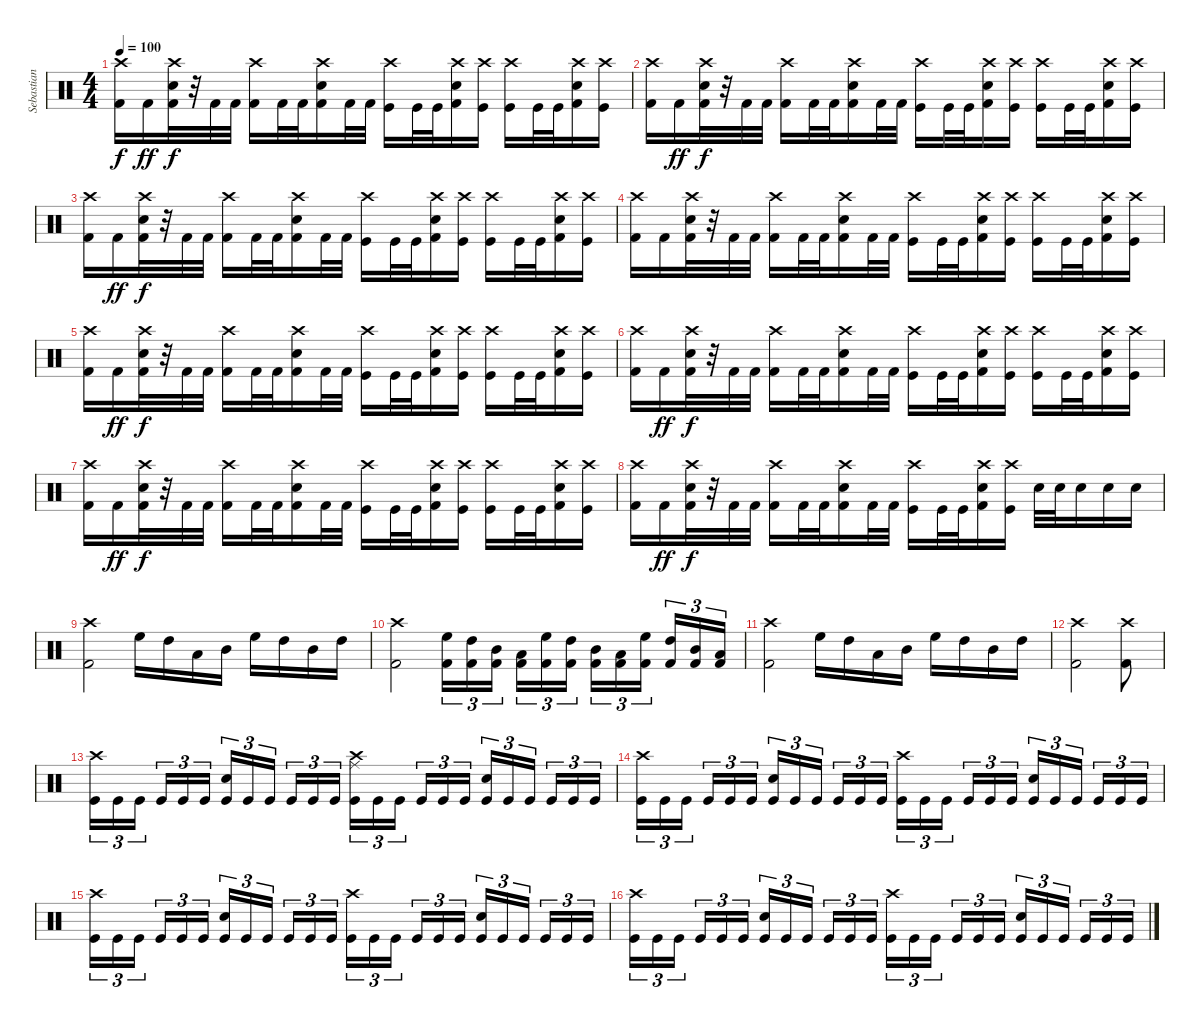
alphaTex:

\track ("Sebastian Heldt" "Sebastian ") {instrument percussion bank 177}
\staff {score}
\articulation defaults
\ts (4 4)
\tempo 100
\clef neutral
\ks c
("Kick (hit) 2" "Crash high (hit)").16{dy f} "Kick (hit) 2".16{dy ff} ("Crash high (hit)" "Kick (hit) 2" "Snare (hit) 2").32{dy f} r.32 "Kick (hit) 2".32 "Kick (hit) 2".32 ("Kick (hit) 2" "Crash high (hit)").16 "Kick (hit) 2".32 "Kick (hit) 2".32 ("Crash high (hit)" "Kick (hit) 2" "Snare (hit) 2").16 "Kick (hit) 2".32 "Kick (hit) 2".32 ("Kick (hit)" "Crash high (hit)").16 "Kick (hit)".32 "Kick (hit)".32 ("Crash high (hit)" "Kick (hit) 2" "Snare (hit) 2").16 ("Kick (hit)" "Crash high (hit)").16 ("Kick (hit)" "Crash high (hit)").16 "Kick (hit)".32 "Kick (hit)".32 ("Crash high (hit)" "Kick (hit) 2" "Snare (hit) 2").16 ("Kick (hit)" "Crash high (hit)").16 |
("Kick (hit) 2" "Crash high (hit)").16 "Kick (hit) 2".16{dy ff} ("Crash high (hit)" "Kick (hit) 2" "Snare (hit) 2").32{dy f} r.32 "Kick (hit) 2".32 "Kick (hit) 2".32 ("Kick (hit) 2" "Crash high (hit)").16 "Kick (hit) 2".32 "Kick (hit) 2".32 ("Crash high (hit)" "Kick (hit) 2" "Snare (hit) 2").16 "Kick (hit) 2".32 "Kick (hit) 2".32 ("Kick (hit)" "Crash high (hit)").16 "Kick (hit)".32 "Kick (hit)".32 ("Crash high (hit)" "Kick (hit) 2" "Snare (hit) 2").16 ("Kick (hit)" "Crash high (hit)").16 ("Kick (hit)" "Crash high (hit)").16 "Kick (hit)".32 "Kick (hit)".32 ("Crash high (hit)" "Kick (hit) 2" "Snare (hit) 2").16 ("Kick (hit)" "Crash high (hit)").16 |
("Kick (hit) 2" "Crash high (hit)").16 "Kick (hit) 2".16{dy ff} ("Crash high (hit)" "Kick (hit) 2" "Snare (hit) 2").32{dy f} r.32 "Kick (hit) 2".32 "Kick (hit) 2".32 ("Kick (hit) 2" "Crash high (hit)").16 "Kick (hit) 2".32 "Kick (hit) 2".32 ("Crash high (hit)" "Kick (hit) 2" "Snare (hit) 2").16 "Kick (hit) 2".32 "Kick (hit) 2".32 ("Kick (hit)" "Crash high (hit)").16 "Kick (hit)".32 "Kick (hit)".32 ("Crash high (hit)" "Kick (hit) 2" "Snare (hit) 2").16 ("Kick (hit)" "Crash high (hit)").16 ("Kick (hit)" "Crash high (hit)").16 "Kick (hit)".32 "Kick (hit)".32 ("Crash high (hit)" "Kick (hit) 2" "Snare (hit) 2").16 ("Kick (hit)" "Crash high (hit)").16 |
("Kick (hit) 2" "Crash high (hit)").16 "Kick (hit) 2".16 ("Crash high (hit)" "Kick (hit) 2" "Snare (hit) 2").32 r.32 "Kick (hit) 2".32 "Kick (hit) 2".32 ("Kick (hit) 2" "Crash high (hit)").16 "Kick (hit) 2".32 "Kick (hit) 2".32 ("Crash high (hit)" "Kick (hit) 2" "Snare (hit) 2").16 "Kick (hit) 2".32 "Kick (hit) 2".32 ("Kick (hit)" "Crash high (hit)").16 "Kick (hit)".32 "Kick (hit)".32 ("Crash high (hit)" "Kick (hit) 2" "Snare (hit) 2").16 ("Kick (hit)" "Crash high (hit)").16 ("Kick (hit)" "Crash high (hit)").16 "Kick (hit)".32 "Kick (hit)".32 ("Crash high (hit)" "Kick (hit) 2" "Snare (hit) 2").16 ("Kick (hit)" "Crash high (hit)").16 |
("Kick (hit) 2" "Crash high (hit)").16 "Kick (hit) 2".16{dy ff} ("Crash high (hit)" "Kick (hit) 2" "Snare (hit) 2").32{dy f} r.32 "Kick (hit) 2".32 "Kick (hit) 2".32 ("Kick (hit) 2" "Crash high (hit)").16 "Kick (hit) 2".32 "Kick (hit) 2".32 ("Crash high (hit)" "Kick (hit) 2" "Snare (hit) 2").16 "Kick (hit) 2".32 "Kick (hit) 2".32 ("Kick (hit)" "Crash high (hit)").16 "Kick (hit)".32 "Kick (hit)".32 ("Crash high (hit)" "Kick (hit) 2" "Snare (hit) 2").16 ("Kick (hit)" "Crash high (hit)").16 ("Kick (hit)" "Crash high (hit)").16 "Kick (hit)".32 "Kick (hit)".32 ("Crash high (hit)" "Kick (hit) 2" "Snare (hit) 2").16 ("Kick (hit)" "Crash high (hit)").16 |
("Kick (hit) 2" "Crash high (hit)").16 "Kick (hit) 2".16{dy ff} ("Crash high (hit)" "Kick (hit) 2" "Snare (hit) 2").32{dy f} r.32 "Kick (hit) 2".32 "Kick (hit) 2".32 ("Kick (hit) 2" "Crash high (hit)").16 "Kick (hit) 2".32 "Kick (hit) 2".32 ("Crash high (hit)" "Kick (hit) 2" "Snare (hit) 2").16 "Kick (hit) 2".32 "Kick (hit) 2".32 ("Kick (hit)" "Crash high (hit)").16 "Kick (hit)".32 "Kick (hit)".32 ("Crash high (hit)" "Kick (hit) 2" "Snare (hit) 2").16 ("Kick (hit)" "Crash high (hit)").16 ("Kick (hit)" "Crash high (hit)").16 "Kick (hit)".32 "Kick (hit)".32 ("Crash high (hit)" "Kick (hit) 2" "Snare (hit) 2").16 ("Kick (hit)" "Crash high (hit)").16 |
("Kick (hit) 2" "Crash high (hit)").16 "Kick (hit) 2".16{dy ff} ("Crash high (hit)" "Kick (hit) 2" "Snare (hit) 2").32{dy f} r.32 "Kick (hit) 2".32 "Kick (hit) 2".32 ("Kick (hit) 2" "Crash high (hit)").16 "Kick (hit) 2".32 "Kick (hit) 2".32 ("Crash high (hit)" "Kick (hit) 2" "Snare (hit) 2").16 "Kick (hit) 2".32 "Kick (hit) 2".32 ("Kick (hit)" "Crash high (hit)").16 "Kick (hit)".32 "Kick (hit)".32 ("Crash high (hit)" "Kick (hit) 2" "Snare (hit) 2").16 ("Kick (hit)" "Crash high (hit)").16 ("Kick (hit)" "Crash high (hit)").16 "Kick (hit)".32 "Kick (hit)".32 ("Crash high (hit)" "Kick (hit) 2" "Snare (hit) 2").16 ("Kick (hit)" "Crash high (hit)").16 |
("Kick (hit) 2" "Crash high (hit)").16 "Kick (hit) 2".16{dy ff} ("Crash high (hit)" "Kick (hit) 2" "Snare (hit) 2").32{dy f} r.32 "Kick (hit) 2".32 "Kick (hit) 2".32 ("Kick (hit) 2" "Crash high (hit)").16 "Kick (hit) 2".32 "Kick (hit) 2".32 ("Crash high (hit)" "Kick (hit) 2" "Snare (hit) 2").16 "Kick (hit) 2".32 "Kick (hit) 2".32 ("Kick (hit)" "Crash high (hit)").16 "Kick (hit)".32 "Kick (hit)".32 ("Crash high (hit)" "Kick (hit) 2" "Snare (hit) 2").16 ("Kick (hit)" "Crash high (hit)").16 "Snare (hit) 2".32 "Snare (hit) 2".32 "Snare (hit) 2".16 "Snare (hit) 2".16 "Snare (hit) 2".16 |
("Kick (hit) 2" "Crash high (hit)").2 "High Floor Tom (hit)".16 "High Tom (hit)".16 "Low Tom (hit)".16 "Mid Tom (hit)".16 "High Floor Tom (hit)".16 "High Tom (hit)".16 "Mid Tom (hit)".16 "High Tom (hit)".16 |
("Kick (hit) 2" "Crash high (hit)").2 ("High Floor Tom (hit)" "Kick (hit) 2").16{tu (3 2)} ("High Tom (hit)" "Kick (hit) 2").16{tu (3 2)} ("Mid Tom (hit)" "Kick (hit) 2").16{tu (3 2) beam splitsecondary} ("Low Tom (hit)" "Kick (hit) 2").16{tu (3 2)} ("High Floor Tom (hit)" "Kick (hit) 2").16{tu (3 2)} ("High Tom (hit)" "Kick (hit) 2").16{tu (3 2)} ("Mid Tom (hit)" "Kick (hit) 2").16{tu (3 2)} ("Low Tom (hit)" "Kick (hit) 2").16{tu (3 2)} ("High Floor Tom (hit)" "Kick (hit) 2").16{tu (3 2) beam splitsecondary} ("High Tom (hit)" "Kick (hit) 2").16{tu (3 2)} ("Mid Tom (hit)" "Kick (hit) 2").16{tu (3 2)} ("Low Tom (hit)" "Kick (hit) 2").16{tu (3 2)} |
("Kick (hit) 2" "Crash high (hit)").2 "High Floor Tom (hit)".16 "High Tom (hit)".16 "Low Tom (hit)".16 "Mid Tom (hit)".16 "High Floor Tom (hit)".16 "High Tom (hit)".16 "Mid Tom (hit)".16 "High Tom (hit)".16 |
("Kick (hit) 2" "Crash high (hit)").2 ("Crash high (hit)" "Kick (hit) 2").8 |
("Kick (hit)" "Crash high (hit)").16{tu (3 2)} "Kick (hit)".16{tu (3 2)} "Kick (hit)".16{tu (3 2) beam splitsecondary} "Kick (hit)".16{tu (3 2)} "Kick (hit)".16{tu (3 2)} "Kick (hit)".16{tu (3 2)} ("Kick (hit)" "Snare (hit) 2").16{tu (3 2)} "Kick (hit)".16{tu (3 2)} "Kick (hit)".16{tu (3 2) beam splitsecondary} "Kick (hit)".16{tu (3 2)} "Kick (hit)".16{tu (3 2)} "Kick (hit)".16{tu (3 2)} ("Kick (hit)" "Crash high (hit)" "Ride (middle)").16{tu (3 2)} "Kick (hit)".16{tu (3 2)} "Kick (hit)".16{tu (3 2) beam splitsecondary} "Kick (hit)".16{tu (3 2)} "Kick (hit)".16{tu (3 2)} "Kick (hit)".16{tu (3 2)} ("Kick (hit)" "Snare (hit) 2").16{tu (3 2)} "Kick (hit)".16{tu (3 2)} "Kick (hit)".16{tu (3 2) beam splitsecondary} "Kick (hit)".16{tu (3 2)} "Kick (hit)".16{tu (3 2)} "Kick (hit)".16{tu (3 2)} |
("Kick (hit)" "Crash high (hit)").16{tu (3 2)} "Kick (hit)".16{tu (3 2)} "Kick (hit)".16{tu (3 2) beam splitsecondary} "Kick (hit)".16{tu (3 2)} "Kick (hit)".16{tu (3 2)} "Kick (hit)".16{tu (3 2)} ("Kick (hit)" "Snare (hit) 2").16{tu (3 2)} "Kick (hit)".16{tu (3 2)} "Kick (hit)".16{tu (3 2) beam splitsecondary} "Kick (hit)".16{tu (3 2)} "Kick (hit)".16{tu (3 2)} "Kick (hit)".16{tu (3 2)} ("Kick (hit)" "Crash high (hit)").16{tu (3 2)} "Kick (hit)".16{tu (3 2)} "Kick (hit)".16{tu (3 2) beam splitsecondary} "Kick (hit)".16{tu (3 2)} "Kick (hit)".16{tu (3 2)} "Kick (hit)".16{tu (3 2)} ("Kick (hit)" "Snare (hit) 2").16{tu (3 2)} "Kick (hit)".16{tu (3 2)} "Kick (hit)".16{tu (3 2) beam splitsecondary} "Kick (hit)".16{tu (3 2)} "Kick (hit)".16{tu (3 2)} "Kick (hit)".16{tu (3 2)} |
("Kick (hit)" "Crash high (hit)").16{tu (3 2)} "Kick (hit)".16{tu (3 2)} "Kick (hit)".16{tu (3 2) beam splitsecondary} "Kick (hit)".16{tu (3 2)} "Kick (hit)".16{tu (3 2)} "Kick (hit)".16{tu (3 2)} ("Kick (hit)" "Snare (hit) 2").16{tu (3 2)} "Kick (hit)".16{tu (3 2)} "Kick (hit)".16{tu (3 2) beam splitsecondary} "Kick (hit)".16{tu (3 2)} "Kick (hit)".16{tu (3 2)} "Kick (hit)".16{tu (3 2)} ("Kick (hit)" "Crash high (hit)").16{tu (3 2)} "Kick (hit)".16{tu (3 2)} "Kick (hit)".16{tu (3 2) beam splitsecondary} "Kick (hit)".16{tu (3 2)} "Kick (hit)".16{tu (3 2)} "Kick (hit)".16{tu (3 2)} ("Kick (hit)" "Snare (hit) 2").16{tu (3 2)} "Kick (hit)".16{tu (3 2)} "Kick (hit)".16{tu (3 2) beam splitsecondary} "Kick (hit)".16{tu (3 2)} "Kick (hit)".16{tu (3 2)} "Kick (hit)".16{tu (3 2)} |
("Kick (hit)" "Crash high (hit)").16{tu (3 2)} "Kick (hit)".16{tu (3 2)} "Kick (hit)".16{tu (3 2) beam splitsecondary} "Kick (hit)".16{tu (3 2)} "Kick (hit)".16{tu (3 2)} "Kick (hit)".16{tu (3 2)} ("Kick (hit)" "Snare (hit) 2").16{tu (3 2)} "Kick (hit)".16{tu (3 2)} "Kick (hit)".16{tu (3 2) beam splitsecondary} "Kick (hit)".16{tu (3 2)} "Kick (hit)".16{tu (3 2)} "Kick (hit)".16{tu (3 2)} ("Kick (hit)" "Crash high (hit)").16{tu (3 2)} "Kick (hit)".16{tu (3 2)} "Kick (hit)".16{tu (3 2) beam splitsecondary} "Kick (hit)".16{tu (3 2)} "Kick (hit)".16{tu (3 2)} "Kick (hit)".16{tu (3 2)} ("Kick (hit)" "Snare (hit) 2").16{tu (3 2)} "Kick (hit)".16{tu (3 2)} "Kick (hit)".16{tu (3 2) beam splitsecondary} "Kick (hit)".16{tu (3 2)} "Kick (hit)".16{tu (3 2)} "Kick (hit)".16{tu (3 2)}
